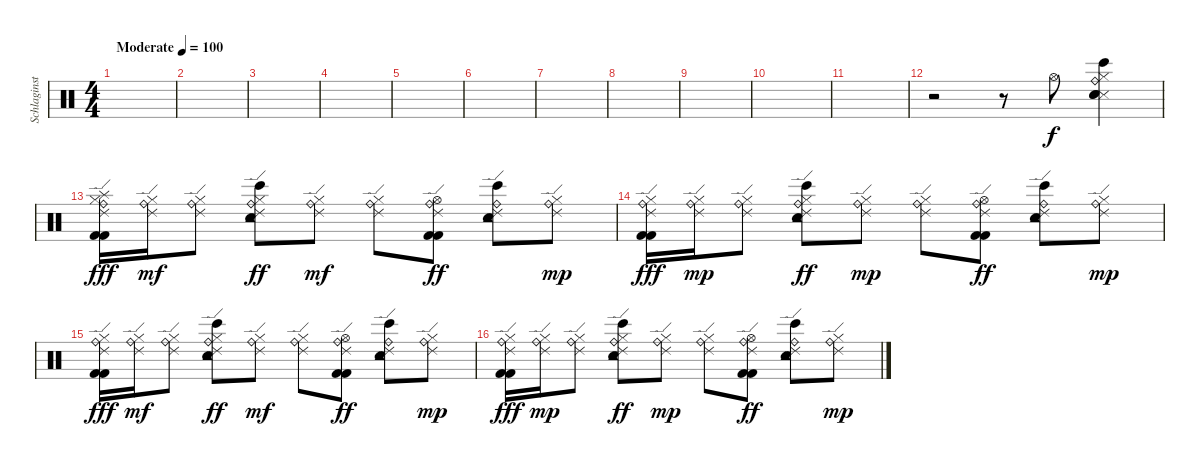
\track ("Schlaginstrumente - Auswahl" "Schlaginst") {instrument percussion}
\staff {score}
\articulation defaults
\ts (4 4)
\tempo (100 "Moderate")
\clef neutral
\ks c
|
|
|
|
|
|
|
|
|
|
|
r.2{volume 11} r.8 "Hi-Hat (open)".8 ("Ride (bell)" "Snare (side stick) 3" "Bongo High (hit)" "Electric Snare (hit)" "Hi-Hat (closed)" "Snare (hit) 2").4 |
("Splash (hit)" "Ride (bell)" "Ride (edge) 2" "Hi-Hat (closed)" "Kick (hit) 2" "Kick (hit) 2").16{dy fff} ("Ride (bell)" "Ride (edge) 2" "Hi-Hat (closed)").16{dy mf} ("Ride (bell)" "Ride (edge) 2" "Hi-Hat (closed)").8 ("Snare (hit) 2" "Ride (bell)" "Ride (edge) 2" "Hi-Hat (closed)" "Bongo High (hit)" "Tambourine (hit)").8{dy ff} ("Ride (bell)" "Ride (edge) 2" "Hi-Hat (closed)").8{dy mf} ("Ride (bell)" "Ride (edge) 2" "Hi-Hat (closed)").8 ("Ride (bell)" "Ride (edge) 2" "Hi-Hat (open)" "Kick (hit) 2" "Kick (hit) 2").8{dy ff} ("Snare (hit) 2" "Ride (bell)" "Ride (edge) 2" "Bongo High (hit)" "Tambourine (hit)").8 ("Ride (bell)" "Ride (edge) 2" "Hi-Hat (closed)").8{dy mp} |
("Ride (bell)" "Ride (edge) 2" "Hi-Hat (closed)" "Kick (hit) 2" "Kick (hit) 2").16{dy fff} ("Ride (bell)" "Ride (edge) 2" "Hi-Hat (closed)").16{dy mp} ("Ride (bell)" "Ride (edge) 2" "Hi-Hat (closed)").8 ("Snare (hit) 2" "Ride (bell)" "Ride (edge) 2" "Hi-Hat (closed)" "Bongo High (hit)" "Tambourine (hit)").8{dy ff} ("Ride (bell)" "Ride (edge) 2" "Hi-Hat (closed)").8{dy mp} ("Ride (bell)" "Ride (edge) 2" "Hi-Hat (closed)").8 ("Ride (bell)" "Ride (edge) 2" "Hi-Hat (open)" "Kick (hit) 2" "Kick (hit) 2").8{dy ff} ("Snare (hit) 2" "Ride (bell)" "Ride (edge) 2" "Bongo High (hit)" "Tambourine (hit)").8 ("Ride (bell)" "Ride (edge) 2" "Hi-Hat (closed)").8{dy mp} |
("Ride (bell)" "Ride (edge) 2" "Hi-Hat (closed)" "Kick (hit) 2" "Kick (hit) 2").16{dy fff} ("Ride (bell)" "Ride (edge) 2" "Hi-Hat (closed)").16{dy mf} ("Ride (bell)" "Ride (edge) 2" "Hi-Hat (closed)").8 ("Snare (hit) 2" "Ride (bell)" "Ride (edge) 2" "Hi-Hat (closed)" "Bongo High (hit)" "Tambourine (hit)").8{dy ff} ("Ride (bell)" "Ride (edge) 2" "Hi-Hat (closed)").8{dy mf} ("Ride (bell)" "Ride (edge) 2" "Hi-Hat (closed)").8 ("Ride (bell)" "Ride (edge) 2" "Hi-Hat (open)" "Kick (hit) 2" "Kick (hit) 2").8{dy ff} ("Snare (hit) 2" "Ride (bell)" "Ride (edge) 2" "Bongo High (hit)" "Tambourine (hit)").8 ("Ride (bell)" "Ride (edge) 2" "Hi-Hat (closed)").8{dy mp} |
("Ride (bell)" "Ride (edge) 2" "Hi-Hat (closed)" "Kick (hit) 2" "Kick (hit) 2").16{dy fff} ("Ride (bell)" "Ride (edge) 2" "Hi-Hat (closed)").16{dy mp} ("Ride (bell)" "Ride (edge) 2" "Hi-Hat (closed)").8 ("Snare (hit) 2" "Ride (bell)" "Ride (edge) 2" "Hi-Hat (closed)" "Bongo High (hit)" "Tambourine (hit)").8{dy ff} ("Ride (bell)" "Ride (edge) 2" "Hi-Hat (closed)").8{dy mp} ("Ride (bell)" "Ride (edge) 2" "Hi-Hat (closed)").8 ("Ride (bell)" "Ride (edge) 2" "Hi-Hat (open)" "Kick (hit) 2" "Kick (hit) 2").8{dy ff} ("Snare (hit) 2" "Ride (bell)" "Ride (edge) 2" "Bongo High (hit)" "Tambourine (hit)").8 ("Ride (bell)" "Ride (edge) 2" "Hi-Hat (closed)").8{dy mp}
